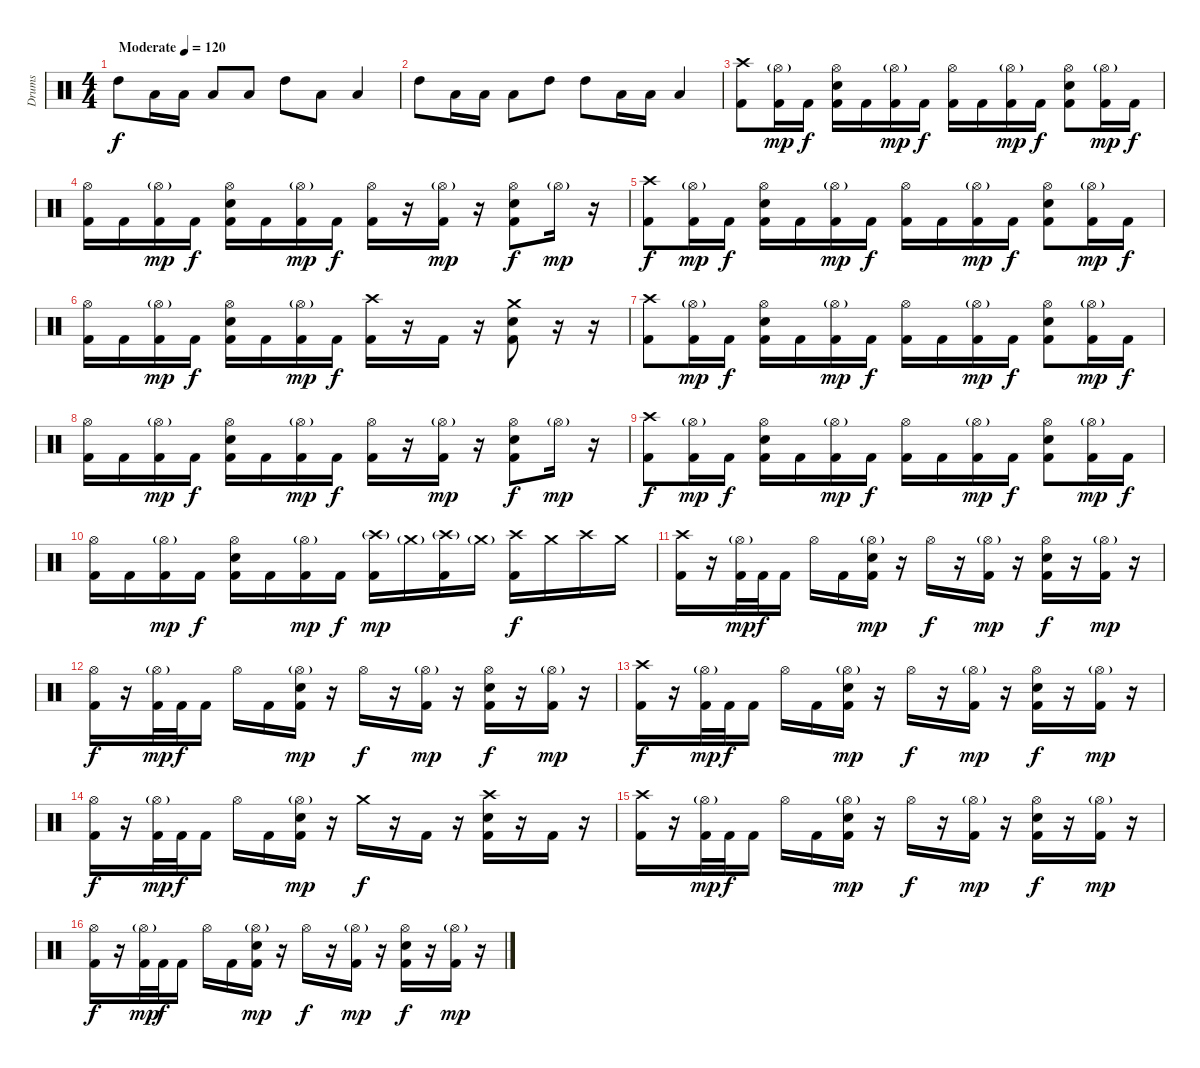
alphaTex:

\track ("Drums" "Drums") {instrument percussion}
\staff {score}
\articulation defaults
\ts (4 4)
\tempo (120 "Moderate")
\clef neutral
\ks c "High Tom (hit)".8{dy f} "Low Tom (hit)".16 "Low Tom (hit)".16 "Low Tom (hit)".8 "Low Tom (hit)".8 "High Tom (hit)".8 "Low Tom (hit)".8 "Low Tom (hit)".4
|
"High Tom (hit)".8 "Low Tom (hit)".16 "Low Tom (hit)".16 "Low Tom (hit)".8 "High Tom (hit)".8 "High Tom (hit)".8 "Low Tom (hit)".16 "Low Tom (hit)".16 "Low Tom (hit)".4 |
("Crash high (hit)" "Kick (hit) 2").8 ("Hi-Hat (open)"{g} "Kick (hit) 2").16{dy mp} "Kick (hit) 2".16{dy f} ("Hi-Hat (open)" "Snare (hit) 2" "Kick (hit) 2").16 "Kick (hit) 2".16 ("Hi-Hat (open)"{g} "Kick (hit) 2").16{dy mp} "Kick (hit) 2".16{dy f} ("Hi-Hat (open)" "Kick (hit) 2").16 "Kick (hit) 2".16 ("Hi-Hat (open)"{g} "Kick (hit) 2").16{dy mp} "Kick (hit) 2".16{dy f} ("Hi-Hat (open)" "Snare (hit) 2" "Kick (hit) 2").8 ("Hi-Hat (open)"{g} "Kick (hit) 2").16{dy mp} "Kick (hit) 2".16{dy f} |
("Hi-Hat (open)" "Kick (hit) 2").16 "Kick (hit) 2".16 ("Hi-Hat (open)"{g} "Kick (hit) 2").16{dy mp} "Kick (hit) 2".16{dy f} ("Hi-Hat (open)" "Snare (hit) 2" "Kick (hit) 2").16 "Kick (hit) 2".16 ("Hi-Hat (open)"{g} "Kick (hit) 2").16{dy mp} "Kick (hit) 2".16{dy f} ("Hi-Hat (open)" "Kick (hit) 2").16 r.16 ("Hi-Hat (open)"{g} "Kick (hit) 2").16{dy mp} r.16 ("Hi-Hat (open)" "Snare (hit) 2" "Kick (hit) 2").8{dy f} "Hi-Hat (open)"{g}.16{dy mp} r.16 |
("Crash high (hit)" "Kick (hit) 2").8{dy f} ("Hi-Hat (open)"{g} "Kick (hit) 2").16{dy mp} "Kick (hit) 2".16{dy f} ("Hi-Hat (open)" "Snare (hit) 2" "Kick (hit) 2").16 "Kick (hit) 2".16 ("Hi-Hat (open)"{g} "Kick (hit) 2").16{dy mp} "Kick (hit) 2".16{dy f} ("Hi-Hat (open)" "Kick (hit) 2").16 "Kick (hit) 2".16 ("Hi-Hat (open)"{g} "Kick (hit) 2").16{dy mp} "Kick (hit) 2".16{dy f} ("Hi-Hat (open)" "Snare (hit) 2" "Kick (hit) 2").8 ("Hi-Hat (open)"{g} "Kick (hit) 2").16{dy mp} "Kick (hit) 2".16{dy f} |
("Hi-Hat (open)" "Kick (hit) 2").16 "Kick (hit) 2".16 ("Hi-Hat (open)"{g} "Kick (hit) 2").16{dy mp} "Kick (hit) 2".16{dy f} ("Hi-Hat (open)" "Snare (hit) 2" "Kick (hit) 2").16 "Kick (hit) 2".16 ("Hi-Hat (open)"{g} "Kick (hit) 2").16{dy mp} "Kick (hit) 2".16{dy f} ("Crash high (hit)" "Kick (hit) 2").16 r.16 "Kick (hit) 2".16 r.16 ("Crash medium (hit)" "Snare (hit) 2" "Kick (hit) 2").8 r.16 r.16 |
("Crash high (hit)" "Kick (hit) 2").8 ("Hi-Hat (open)"{g} "Kick (hit) 2").16{dy mp} "Kick (hit) 2".16{dy f} ("Hi-Hat (open)" "Snare (hit) 2" "Kick (hit) 2").16 "Kick (hit) 2".16 ("Hi-Hat (open)"{g} "Kick (hit) 2").16{dy mp} "Kick (hit) 2".16{dy f} ("Hi-Hat (open)" "Kick (hit) 2").16 "Kick (hit) 2".16 ("Hi-Hat (open)"{g} "Kick (hit) 2").16{dy mp} "Kick (hit) 2".16{dy f} ("Hi-Hat (open)" "Snare (hit) 2" "Kick (hit) 2").8 ("Hi-Hat (open)"{g} "Kick (hit) 2").16{dy mp} "Kick (hit) 2".16{dy f} |
("Hi-Hat (open)" "Kick (hit) 2").16 "Kick (hit) 2".16 ("Hi-Hat (open)"{g} "Kick (hit) 2").16{dy mp} "Kick (hit) 2".16{dy f} ("Hi-Hat (open)" "Snare (hit) 2" "Kick (hit) 2").16 "Kick (hit) 2".16 ("Hi-Hat (open)"{g} "Kick (hit) 2").16{dy mp} "Kick (hit) 2".16{dy f} ("Hi-Hat (open)" "Kick (hit) 2").16 r.16 ("Hi-Hat (open)"{g} "Kick (hit) 2").16{dy mp} r.16 ("Hi-Hat (open)" "Snare (hit) 2" "Kick (hit) 2").8{dy f} "Hi-Hat (open)"{g}.16{dy mp} r.16 |
("Crash high (hit)" "Kick (hit) 2").8{dy f} ("Hi-Hat (open)"{g} "Kick (hit) 2").16{dy mp} "Kick (hit) 2".16{dy f} ("Hi-Hat (open)" "Snare (hit) 2" "Kick (hit) 2").16 "Kick (hit) 2".16 ("Hi-Hat (open)"{g} "Kick (hit) 2").16{dy mp} "Kick (hit) 2".16{dy f} ("Hi-Hat (open)" "Kick (hit) 2").16 "Kick (hit) 2".16 ("Hi-Hat (open)"{g} "Kick (hit) 2").16{dy mp} "Kick (hit) 2".16{dy f} ("Hi-Hat (open)" "Snare (hit) 2" "Kick (hit) 2").8 ("Hi-Hat (open)"{g} "Kick (hit) 2").16{dy mp} "Kick (hit) 2".16{dy f} |
("Hi-Hat (open)" "Kick (hit) 2").16 "Kick (hit) 2".16 ("Hi-Hat (open)"{g} "Kick (hit) 2").16{dy mp} "Kick (hit) 2".16{dy f} ("Hi-Hat (open)" "Snare (hit) 2" "Kick (hit) 2").16 "Kick (hit) 2".16 ("Hi-Hat (open)"{g} "Kick (hit) 2").16{dy mp} "Kick (hit) 2".16{dy f} ("Crash high (hit)"{g} "Kick (hit) 2").16{dy mp} "Crash medium (hit)"{g}.16 ("Crash high (hit)"{g} "Kick (hit) 2").16 "Crash medium (hit)"{g}.16 ("Crash high (hit)" "Kick (hit) 2").16{dy f} "Crash medium (hit)".16 "Crash high (hit)".16 "Crash medium (hit)".16 |
("Crash high (hit)" "Kick (hit) 2").16 r.16 ("Hi-Hat (open)"{g} "Kick (hit) 2").32{dy mp} "Kick (hit) 2".32{dy f} "Kick (hit) 2".16 "Hi-Hat (open)".16 "Kick (hit) 2".16 ("Hi-Hat (open)"{g} "Snare (hit) 2" "Kick (hit) 2").16{dy mp} r.16 "Hi-Hat (open)".16{dy f} r.16 ("Hi-Hat (open)"{g} "Kick (hit) 2").16{dy mp} r.16 ("Hi-Hat (open)" "Snare (hit) 2" "Kick (hit) 2").16{dy f} r.16 ("Hi-Hat (open)"{g} "Kick (hit) 2").16{dy mp} r.16 |
("Hi-Hat (open)" "Kick (hit) 2").16{dy f} r.16 ("Hi-Hat (open)"{g} "Kick (hit) 2").32{dy mp} "Kick (hit) 2".32{dy f} "Kick (hit) 2".16 "Hi-Hat (open)".16 "Kick (hit) 2".16 ("Hi-Hat (open)"{g} "Snare (hit) 2" "Kick (hit) 2").16{dy mp} r.16 "Hi-Hat (open)".16{dy f} r.16 ("Hi-Hat (open)"{g} "Kick (hit) 2").16{dy mp} r.16 ("Hi-Hat (open)" "Snare (hit) 2" "Kick (hit) 2").16{dy f} r.16 ("Hi-Hat (open)"{g} "Kick (hit) 2").16{dy mp} r.16 |
("Crash high (hit)" "Kick (hit) 2").16{dy f} r.16 ("Hi-Hat (open)"{g} "Kick (hit) 2").32{dy mp} "Kick (hit) 2".32{dy f} "Kick (hit) 2".16 "Hi-Hat (open)".16 "Kick (hit) 2".16 ("Hi-Hat (open)"{g} "Snare (hit) 2" "Kick (hit) 2").16{dy mp} r.16 "Hi-Hat (open)".16{dy f} r.16 ("Hi-Hat (open)"{g} "Kick (hit) 2").16{dy mp} r.16 ("Hi-Hat (open)" "Snare (hit) 2" "Kick (hit) 2").16{dy f} r.16 ("Hi-Hat (open)"{g} "Kick (hit) 2").16{dy mp} r.16 |
("Hi-Hat (open)" "Kick (hit) 2").16{dy f} r.16 ("Hi-Hat (open)"{g} "Kick (hit) 2").32{dy mp} "Kick (hit) 2".32{dy f} "Kick (hit) 2".16 "Hi-Hat (open)".16 "Kick (hit) 2".16 ("Hi-Hat (open)"{g} "Snare (hit) 2" "Kick (hit) 2").16{dy mp} r.16 "Crash medium (hit)".16{dy f} r.16 "Kick (hit) 2".16 r.16 ("Crash high (hit)" "Snare (hit) 2" "Kick (hit) 2").16 r.16 "Kick (hit) 2".16 r.16 |
("Crash high (hit)" "Kick (hit) 2").16 r.16 ("Hi-Hat (open)"{g} "Kick (hit) 2").32{dy mp} "Kick (hit) 2".32{dy f} "Kick (hit) 2".16 "Hi-Hat (open)".16 "Kick (hit) 2".16 ("Hi-Hat (open)"{g} "Snare (hit) 2" "Kick (hit) 2").16{dy mp} r.16 "Hi-Hat (open)".16{dy f} r.16 ("Hi-Hat (open)"{g} "Kick (hit) 2").16{dy mp} r.16 ("Hi-Hat (open)" "Snare (hit) 2" "Kick (hit) 2").16{dy f} r.16 ("Hi-Hat (open)"{g} "Kick (hit) 2").16{dy mp} r.16 |
("Hi-Hat (open)" "Kick (hit) 2").16{dy f} r.16 ("Hi-Hat (open)"{g} "Kick (hit) 2").32{dy mp} "Kick (hit) 2".32{dy f} "Kick (hit) 2".16 "Hi-Hat (open)".16 "Kick (hit) 2".16 ("Hi-Hat (open)"{g} "Snare (hit) 2" "Kick (hit) 2").16{dy mp} r.16 "Hi-Hat (open)".16{dy f} r.16 ("Hi-Hat (open)"{g} "Kick (hit) 2").16{dy mp} r.16 ("Hi-Hat (open)" "Snare (hit) 2" "Kick (hit) 2").16{dy f} r.16 ("Hi-Hat (open)"{g} "Kick (hit) 2").16{dy mp} r.16
